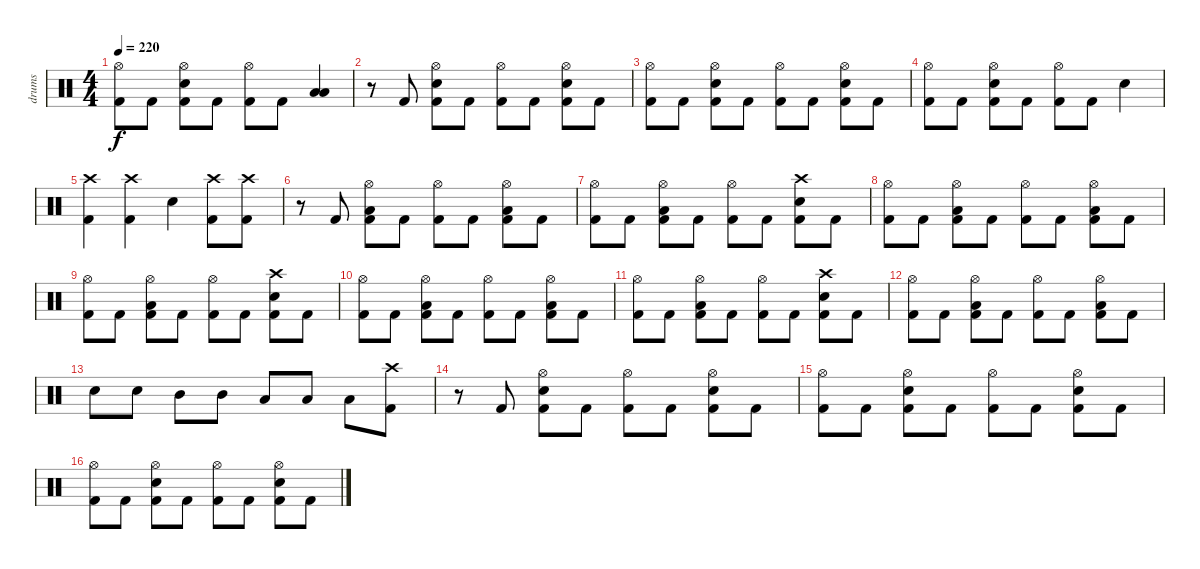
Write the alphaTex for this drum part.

\track ("drums" "drums") {instrument percussion}
\staff {score}
\articulation defaults
\ts (4 4)
\tempo 220
\clef neutral
\ks c
("Hi-Hat (open)" "Kick (hit) 2").8{dy f} "Kick (hit) 2".8 ("Hi-Hat (open)" "Electric Snare (hit)" "Kick (hit) 2").8 "Kick (hit) 2".8 ("Hi-Hat (open)" "Kick (hit) 2").8 "Kick (hit) 2".8 ("Low Tom (hit)" "Low Floor Tom (hit)").4 |
r.8 "Kick (hit) 2".8 ("Hi-Hat (open)" "Electric Snare (hit)" "Kick (hit) 2").8 "Kick (hit) 2".8 ("Hi-Hat (open)" "Kick (hit) 2").8 "Kick (hit) 2".8 ("Hi-Hat (open)" "Electric Snare (hit)" "Kick (hit) 2").8 "Kick (hit) 2".8 |
("Hi-Hat (open)" "Kick (hit) 2").8 "Kick (hit) 2".8 ("Hi-Hat (open)" "Electric Snare (hit)" "Kick (hit) 2").8 "Kick (hit) 2".8 ("Hi-Hat (open)" "Kick (hit) 2").8 "Kick (hit) 2".8 ("Hi-Hat (open)" "Electric Snare (hit)" "Kick (hit) 2").8 "Kick (hit) 2".8 |
("Hi-Hat (open)" "Kick (hit) 2").8 "Kick (hit) 2".8 ("Hi-Hat (open)" "Electric Snare (hit)" "Kick (hit) 2").8 "Kick (hit) 2".8 ("Hi-Hat (open)" "Kick (hit) 2").8 "Kick (hit) 2".8 "Electric Snare (hit)".4 |
("Crash high (hit)" "Kick (hit) 2").4 ("Crash high (hit)" "Kick (hit) 2").4 "Electric Snare (hit)".4 ("Crash high (hit)" "Kick (hit) 2").8 ("Crash high (hit)" "Kick (hit) 2").8 |
r.8 "Kick (hit) 2".8 ("Hi-Hat (open)" "Low Tom (hit)" "Kick (hit) 2").8 "Kick (hit) 2".8 ("Hi-Hat (open)" "Kick (hit) 2").8 "Kick (hit) 2".8 ("Hi-Hat (open)" "Low Tom (hit)" "Kick (hit) 2").8 "Kick (hit) 2".8 |
("Hi-Hat (open)" "Kick (hit) 2").8 "Kick (hit) 2".8 ("Hi-Hat (open)" "Low Tom (hit)" "Kick (hit) 2").8 "Kick (hit) 2".8 ("Hi-Hat (open)" "Kick (hit) 2").8 "Kick (hit) 2".8 ("Crash high (hit)" "Electric Snare (hit)" "Kick (hit) 2").8 "Kick (hit) 2".8 |
("Hi-Hat (open)" "Kick (hit) 2").8 "Kick (hit) 2".8 ("Hi-Hat (open)" "Low Tom (hit)" "Kick (hit) 2").8 "Kick (hit) 2".8 ("Hi-Hat (open)" "Kick (hit) 2").8 "Kick (hit) 2".8 ("Hi-Hat (open)" "Low Tom (hit)" "Kick (hit) 2").8 "Kick (hit) 2".8 |
("Hi-Hat (open)" "Kick (hit) 2").8 "Kick (hit) 2".8 ("Hi-Hat (open)" "Low Tom (hit)" "Kick (hit) 2").8 "Kick (hit) 2".8 ("Hi-Hat (open)" "Kick (hit) 2").8 "Kick (hit) 2".8 ("Crash high (hit)" "Electric Snare (hit)" "Kick (hit) 2").8 "Kick (hit) 2".8 |
("Hi-Hat (open)" "Kick (hit) 2").8 "Kick (hit) 2".8 ("Hi-Hat (open)" "Low Tom (hit)" "Kick (hit) 2").8 "Kick (hit) 2".8 ("Hi-Hat (open)" "Kick (hit) 2").8 "Kick (hit) 2".8 ("Hi-Hat (open)" "Low Tom (hit)" "Kick (hit) 2").8 "Kick (hit) 2".8 |
("Hi-Hat (open)" "Kick (hit) 2").8 "Kick (hit) 2".8 ("Hi-Hat (open)" "Low Tom (hit)" "Kick (hit) 2").8 "Kick (hit) 2".8 ("Hi-Hat (open)" "Kick (hit) 2").8 "Kick (hit) 2".8 ("Crash high (hit)" "Electric Snare (hit)" "Kick (hit) 2").8 "Kick (hit) 2".8 |
("Hi-Hat (open)" "Kick (hit) 2").8 "Kick (hit) 2".8 ("Hi-Hat (open)" "Low Tom (hit)" "Kick (hit) 2").8 "Kick (hit) 2".8 ("Hi-Hat (open)" "Kick (hit) 2").8 "Kick (hit) 2".8 ("Hi-Hat (open)" "Low Tom (hit)" "Kick (hit) 2").8 "Kick (hit) 2".8 |
"Electric Snare (hit)".8 "Electric Snare (hit)".8 "Mid Tom (hit)".8 "Mid Tom (hit)".8 "Low Tom (hit)".8 "Low Tom (hit)".8 "Low Floor Tom (hit)".8 ("Crash high (hit)" "Kick (hit) 2").8 |
r.8 "Kick (hit) 2".8 ("Hi-Hat (open)" "Electric Snare (hit)" "Kick (hit) 2").8 "Kick (hit) 2".8 ("Hi-Hat (open)" "Kick (hit) 2").8 "Kick (hit) 2".8 ("Hi-Hat (open)" "Electric Snare (hit)" "Kick (hit) 2").8 "Kick (hit) 2".8 |
("Hi-Hat (open)" "Kick (hit) 2").8 "Kick (hit) 2".8 ("Hi-Hat (open)" "Electric Snare (hit)" "Kick (hit) 2").8 "Kick (hit) 2".8 ("Hi-Hat (open)" "Kick (hit) 2").8 "Kick (hit) 2".8 ("Hi-Hat (open)" "Electric Snare (hit)" "Kick (hit) 2").8 "Kick (hit) 2".8 |
("Hi-Hat (open)" "Kick (hit) 2").8 "Kick (hit) 2".8 ("Hi-Hat (open)" "Electric Snare (hit)" "Kick (hit) 2").8 "Kick (hit) 2".8 ("Hi-Hat (open)" "Kick (hit) 2").8 "Kick (hit) 2".8 ("Hi-Hat (open)" "Electric Snare (hit)" "Kick (hit) 2").8 "Kick (hit) 2".8
